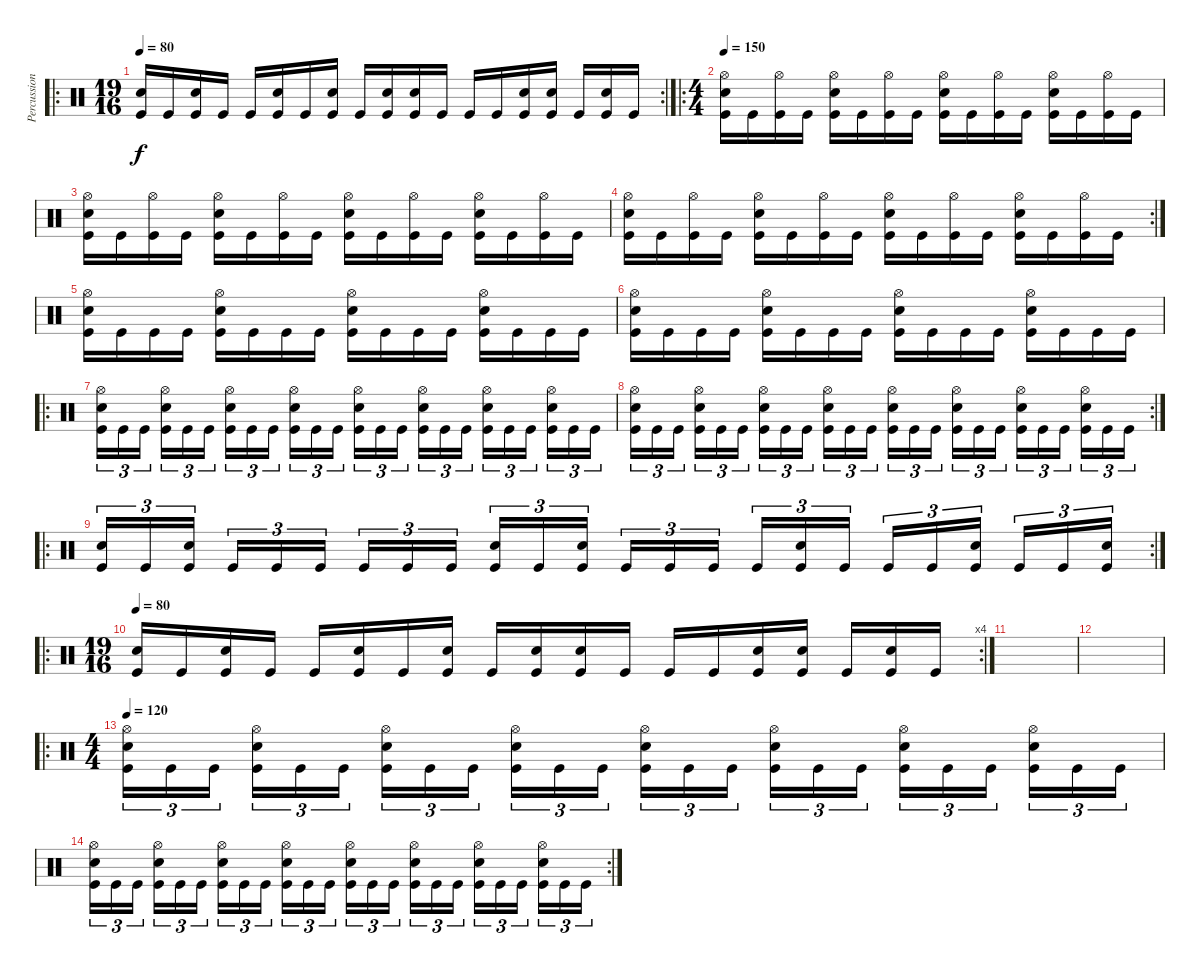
\track ("Percussion" "Percussion") {instrument percussion}
\staff {score}
\articulation defaults
\ro
\rc 2
\ts (19 16)
\tempo 80
\clef neutral
\ks c
("Snare (hit) 2" "Kick (hit)").16{dy f} "Kick (hit)".16 ("Snare (hit) 2" "Kick (hit)").16 "Kick (hit)".16 "Kick (hit)".16 ("Snare (hit) 2" "Kick (hit)").16 "Kick (hit)".16 ("Snare (hit) 2" "Kick (hit)").16 "Kick (hit)".16 ("Snare (hit) 2" "Kick (hit)").16 ("Snare (hit) 2" "Kick (hit)").16 "Kick (hit)".16 "Kick (hit)".16 "Kick (hit)".16 ("Snare (hit) 2" "Kick (hit)").16 ("Snare (hit) 2" "Kick (hit)").16 "Kick (hit)".16 ("Snare (hit) 2" "Kick (hit)").16 "Kick (hit)".16 |
\ro
\ts (4 4)
\tempo 150
("Hi-Hat (open)" "Snare (hit) 2" "Kick (hit)").16 "Kick (hit)".16 ("Hi-Hat (open)" "Kick (hit)").16 "Kick (hit)".16 ("Hi-Hat (open)" "Snare (hit) 2" "Kick (hit)").16 "Kick (hit)".16 ("Hi-Hat (open)" "Kick (hit)").16 "Kick (hit)".16 ("Hi-Hat (open)" "Snare (hit) 2" "Kick (hit)").16 "Kick (hit)".16 ("Hi-Hat (open)" "Kick (hit)").16 "Kick (hit)".16 ("Hi-Hat (open)" "Snare (hit) 2" "Kick (hit)").16 "Kick (hit)".16 ("Hi-Hat (open)" "Kick (hit)").16 "Kick (hit)".16 |
("Hi-Hat (open)" "Snare (hit) 2" "Kick (hit)").16 "Kick (hit)".16 ("Hi-Hat (open)" "Kick (hit)").16 "Kick (hit)".16 ("Hi-Hat (open)" "Snare (hit) 2" "Kick (hit)").16 "Kick (hit)".16 ("Hi-Hat (open)" "Kick (hit)").16 "Kick (hit)".16 ("Hi-Hat (open)" "Snare (hit) 2" "Kick (hit)").16 "Kick (hit)".16 ("Hi-Hat (open)" "Kick (hit)").16 "Kick (hit)".16 ("Hi-Hat (open)" "Snare (hit) 2" "Kick (hit)").16 "Kick (hit)".16 ("Hi-Hat (open)" "Kick (hit)").16 "Kick (hit)".16 |
\rc 2
("Hi-Hat (open)" "Snare (hit) 2" "Kick (hit)").16 "Kick (hit)".16 ("Hi-Hat (open)" "Kick (hit)").16 "Kick (hit)".16 ("Hi-Hat (open)" "Snare (hit) 2" "Kick (hit)").16 "Kick (hit)".16 ("Hi-Hat (open)" "Kick (hit)").16 "Kick (hit)".16 ("Hi-Hat (open)" "Snare (hit) 2" "Kick (hit)").16 "Kick (hit)".16 ("Hi-Hat (open)" "Kick (hit)").16 "Kick (hit)".16 ("Hi-Hat (open)" "Snare (hit) 2" "Kick (hit)").16 "Kick (hit)".16 ("Hi-Hat (open)" "Kick (hit)").16 "Kick (hit)".16 |
("Hi-Hat (open)" "Snare (hit) 2" "Kick (hit)").16 "Kick (hit)".16 "Kick (hit)".16 "Kick (hit)".16 ("Hi-Hat (open)" "Snare (hit) 2" "Kick (hit)").16 "Kick (hit)".16 "Kick (hit)".16 "Kick (hit)".16 ("Hi-Hat (open)" "Snare (hit) 2" "Kick (hit)").16 "Kick (hit)".16 "Kick (hit)".16 "Kick (hit)".16 ("Hi-Hat (open)" "Snare (hit) 2" "Kick (hit)").16 "Kick (hit)".16 "Kick (hit)".16 "Kick (hit)".16 |
("Hi-Hat (open)" "Snare (hit) 2" "Kick (hit)").16 "Kick (hit)".16 "Kick (hit)".16 "Kick (hit)".16 ("Hi-Hat (open)" "Snare (hit) 2" "Kick (hit)").16 "Kick (hit)".16 "Kick (hit)".16 "Kick (hit)".16 ("Hi-Hat (open)" "Snare (hit) 2" "Kick (hit)").16 "Kick (hit)".16 "Kick (hit)".16 "Kick (hit)".16 ("Hi-Hat (open)" "Snare (hit) 2" "Kick (hit)").16 "Kick (hit)".16 "Kick (hit)".16 "Kick (hit)".16 |
\ro
("Hi-Hat (open)" "Snare (hit) 2" "Kick (hit)").16{tu (3 2)} "Kick (hit)".16{tu (3 2)} "Kick (hit)".16{tu (3 2)} ("Hi-Hat (open)" "Snare (hit) 2" "Kick (hit)").16{tu (3 2)} "Kick (hit)".16{tu (3 2)} "Kick (hit)".16{tu (3 2)} ("Hi-Hat (open)" "Snare (hit) 2" "Kick (hit)").16{tu (3 2)} "Kick (hit)".16{tu (3 2)} "Kick (hit)".16{tu (3 2)} ("Hi-Hat (open)" "Snare (hit) 2" "Kick (hit)").16{tu (3 2)} "Kick (hit)".16{tu (3 2)} "Kick (hit)".16{tu (3 2)} ("Hi-Hat (open)" "Snare (hit) 2" "Kick (hit)").16{tu (3 2)} "Kick (hit)".16{tu (3 2)} "Kick (hit)".16{tu (3 2)} ("Hi-Hat (open)" "Snare (hit) 2" "Kick (hit)").16{tu (3 2)} "Kick (hit)".16{tu (3 2)} "Kick (hit)".16{tu (3 2)} ("Hi-Hat (open)" "Snare (hit) 2" "Kick (hit)").16{tu (3 2)} "Kick (hit)".16{tu (3 2)} "Kick (hit)".16{tu (3 2)} ("Hi-Hat (open)" "Snare (hit) 2" "Kick (hit)").16{tu (3 2)} "Kick (hit)".16{tu (3 2)} "Kick (hit)".16{tu (3 2)} |
\rc 2
("Hi-Hat (open)" "Snare (hit) 2" "Kick (hit)").16{tu (3 2)} "Kick (hit)".16{tu (3 2)} "Kick (hit)".16{tu (3 2)} ("Hi-Hat (open)" "Snare (hit) 2" "Kick (hit)").16{tu (3 2)} "Kick (hit)".16{tu (3 2)} "Kick (hit)".16{tu (3 2)} ("Hi-Hat (open)" "Snare (hit) 2" "Kick (hit)").16{tu (3 2)} "Kick (hit)".16{tu (3 2)} "Kick (hit)".16{tu (3 2)} ("Hi-Hat (open)" "Snare (hit) 2" "Kick (hit)").16{tu (3 2)} "Kick (hit)".16{tu (3 2)} "Kick (hit)".16{tu (3 2)} ("Hi-Hat (open)" "Snare (hit) 2" "Kick (hit)").16{tu (3 2)} "Kick (hit)".16{tu (3 2)} "Kick (hit)".16{tu (3 2)} ("Hi-Hat (open)" "Snare (hit) 2" "Kick (hit)").16{tu (3 2)} "Kick (hit)".16{tu (3 2)} "Kick (hit)".16{tu (3 2)} ("Hi-Hat (open)" "Snare (hit) 2" "Kick (hit)").16{tu (3 2)} "Kick (hit)".16{tu (3 2)} "Kick (hit)".16{tu (3 2)} ("Hi-Hat (open)" "Snare (hit) 2" "Kick (hit)").16{tu (3 2)} "Kick (hit)".16{tu (3 2)} "Kick (hit)".16{tu (3 2)} |
\ro
\rc 2
("Snare (hit) 2" "Kick (hit)").16{tu (3 2)} "Kick (hit)".16{tu (3 2)} ("Snare (hit) 2" "Kick (hit)").16{tu (3 2)} "Kick (hit)".16{tu (3 2)} "Kick (hit)".16{tu (3 2)} "Kick (hit)".16{tu (3 2)} "Kick (hit)".16{tu (3 2)} "Kick (hit)".16{tu (3 2)} "Kick (hit)".16{tu (3 2)} ("Snare (hit) 2" "Kick (hit)").16{tu (3 2)} "Kick (hit)".16{tu (3 2)} ("Snare (hit) 2" "Kick (hit)").16{tu (3 2)} "Kick (hit)".16{tu (3 2)} "Kick (hit)".16{tu (3 2)} "Kick (hit)".16{tu (3 2)} "Kick (hit)".16{tu (3 2)} ("Snare (hit) 2" "Kick (hit)").16{tu (3 2)} "Kick (hit)".16{tu (3 2)} "Kick (hit)".16{tu (3 2)} "Kick (hit)".16{tu (3 2)} ("Snare (hit) 2" "Kick (hit)").16{tu (3 2)} "Kick (hit)".16{tu (3 2)} "Kick (hit)".16{tu (3 2)} ("Snare (hit) 2" "Kick (hit)").16{tu (3 2)} |
\ro
\rc 4
\ts (19 16)
\tempo 80
("Snare (hit) 2" "Kick (hit)").16 "Kick (hit)".16 ("Snare (hit) 2" "Kick (hit)").16 "Kick (hit)".16 "Kick (hit)".16 ("Snare (hit) 2" "Kick (hit)").16 "Kick (hit)".16 ("Snare (hit) 2" "Kick (hit)").16 "Kick (hit)".16 ("Snare (hit) 2" "Kick (hit)").16 ("Snare (hit) 2" "Kick (hit)").16 "Kick (hit)".16 "Kick (hit)".16 "Kick (hit)".16 ("Snare (hit) 2" "Kick (hit)").16 ("Snare (hit) 2" "Kick (hit)").16 "Kick (hit)".16 ("Snare (hit) 2" "Kick (hit)").16 "Kick (hit)".16 |
|
|
\ro
\ts (4 4)
\tempo 120
("Hi-Hat (open)" "Snare (hit) 2" "Kick (hit)").16{tu (3 2)} "Kick (hit)".16{tu (3 2)} "Kick (hit)".16{tu (3 2)} ("Hi-Hat (open)" "Snare (hit) 2" "Kick (hit)").16{tu (3 2)} "Kick (hit)".16{tu (3 2)} "Kick (hit)".16{tu (3 2)} ("Hi-Hat (open)" "Snare (hit) 2" "Kick (hit)").16{tu (3 2)} "Kick (hit)".16{tu (3 2)} "Kick (hit)".16{tu (3 2)} ("Hi-Hat (open)" "Snare (hit) 2" "Kick (hit)").16{tu (3 2)} "Kick (hit)".16{tu (3 2)} "Kick (hit)".16{tu (3 2)} ("Hi-Hat (open)" "Snare (hit) 2" "Kick (hit)").16{tu (3 2)} "Kick (hit)".16{tu (3 2)} "Kick (hit)".16{tu (3 2)} ("Hi-Hat (open)" "Snare (hit) 2" "Kick (hit)").16{tu (3 2)} "Kick (hit)".16{tu (3 2)} "Kick (hit)".16{tu (3 2)} ("Hi-Hat (open)" "Snare (hit) 2" "Kick (hit)").16{tu (3 2)} "Kick (hit)".16{tu (3 2)} "Kick (hit)".16{tu (3 2)} ("Hi-Hat (open)" "Snare (hit) 2" "Kick (hit)").16{tu (3 2)} "Kick (hit)".16{tu (3 2)} "Kick (hit)".16{tu (3 2)} |
\rc 2
("Hi-Hat (open)" "Snare (hit) 2" "Kick (hit)").16{tu (3 2)} "Kick (hit)".16{tu (3 2)} "Kick (hit)".16{tu (3 2)} ("Hi-Hat (open)" "Snare (hit) 2" "Kick (hit)").16{tu (3 2)} "Kick (hit)".16{tu (3 2)} "Kick (hit)".16{tu (3 2)} ("Hi-Hat (open)" "Snare (hit) 2" "Kick (hit)").16{tu (3 2)} "Kick (hit)".16{tu (3 2)} "Kick (hit)".16{tu (3 2)} ("Hi-Hat (open)" "Snare (hit) 2" "Kick (hit)").16{tu (3 2)} "Kick (hit)".16{tu (3 2)} "Kick (hit)".16{tu (3 2)} ("Hi-Hat (open)" "Snare (hit) 2" "Kick (hit)").16{tu (3 2)} "Kick (hit)".16{tu (3 2)} "Kick (hit)".16{tu (3 2)} ("Hi-Hat (open)" "Snare (hit) 2" "Kick (hit)").16{tu (3 2)} "Kick (hit)".16{tu (3 2)} "Kick (hit)".16{tu (3 2)} ("Hi-Hat (open)" "Snare (hit) 2" "Kick (hit)").16{tu (3 2)} "Kick (hit)".16{tu (3 2)} "Kick (hit)".16{tu (3 2)} ("Hi-Hat (open)" "Snare (hit) 2" "Kick (hit)").16{tu (3 2)} "Kick (hit)".16{tu (3 2)} "Kick (hit)".16{tu (3 2)}
